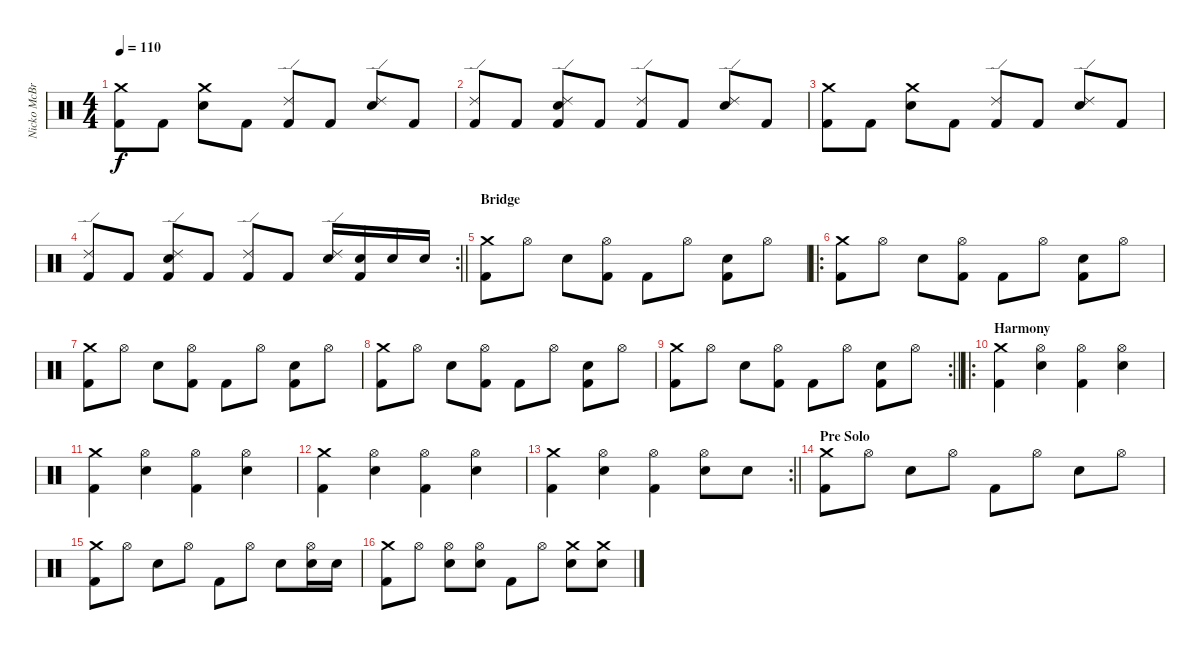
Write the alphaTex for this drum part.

\track ("Nicko McBrain" "Nicko McBr") {instrument percussion}
\staff {score}
\articulation defaults
\ts (4 4)
\tempo 110
\clef neutral
\ks c
("Crash medium (hit)" "Kick (hit) 2").8{dy f} "Kick (hit) 2".8 ("Snare (hit) 2" "Crash medium (hit)").8 "Kick (hit) 2".8 ("Ride (edge) 2" "Kick (hit) 2").8 "Kick (hit) 2".8 ("Snare (hit) 2" "Ride (edge) 2").8 "Kick (hit) 2".8 |
("Ride (edge) 2" "Kick (hit) 2").8 "Kick (hit) 2".8 ("Snare (hit) 2" "Ride (edge) 2" "Kick (hit) 2").8 "Kick (hit) 2".8 ("Ride (edge) 2" "Kick (hit) 2").8 "Kick (hit) 2".8 ("Snare (hit) 2" "Ride (edge) 2").8 "Kick (hit) 2".8 |
("Crash medium (hit)" "Kick (hit) 2").8 "Kick (hit) 2".8 ("Snare (hit) 2" "Crash medium (hit)").8 "Kick (hit) 2".8 ("Ride (edge) 2" "Kick (hit) 2").8 "Kick (hit) 2".8 ("Snare (hit) 2" "Ride (edge) 2").8 "Kick (hit) 2".8 |
\rc 2
\barLineRight lightlight
("Ride (edge) 2" "Kick (hit) 2").8 "Kick (hit) 2".8 ("Snare (hit) 2" "Ride (edge) 2" "Kick (hit) 2").8 "Kick (hit) 2".8 ("Ride (edge) 2" "Kick (hit) 2").8 "Kick (hit) 2".8 ("Snare (hit) 2" "Ride (edge) 2").16 ("Snare (hit) 2" "Kick (hit) 2").16 "Snare (hit) 2".16 "Snare (hit) 2".16 |
\section ("" "Bridge")
("Crash medium (hit)" "Kick (hit) 2").8 "Hi-Hat (open)".8 "Snare (hit) 2".8 ("Hi-Hat (open)" "Kick (hit) 2").8 "Kick (hit) 2".8 "Hi-Hat (open)".8 ("Snare (hit) 2" "Kick (hit) 2").8 "Hi-Hat (open)".8 |
\ro
("Crash medium (hit)" "Kick (hit) 2").8 "Hi-Hat (open)".8 "Snare (hit) 2".8 ("Hi-Hat (open)" "Kick (hit) 2").8 "Kick (hit) 2".8 "Hi-Hat (open)".8 ("Snare (hit) 2" "Kick (hit) 2").8 "Hi-Hat (open)".8 |
("Crash medium (hit)" "Kick (hit) 2").8 "Hi-Hat (open)".8 "Snare (hit) 2".8 ("Hi-Hat (open)" "Kick (hit) 2").8 "Kick (hit) 2".8 "Hi-Hat (open)".8 ("Snare (hit) 2" "Kick (hit) 2").8 "Hi-Hat (open)".8 |
("Crash medium (hit)" "Kick (hit) 2").8 "Hi-Hat (open)".8 "Snare (hit) 2".8 ("Hi-Hat (open)" "Kick (hit) 2").8 "Kick (hit) 2".8 "Hi-Hat (open)".8 ("Snare (hit) 2" "Kick (hit) 2").8 "Hi-Hat (open)".8 |
\rc 2
\barLineRight lightlight
("Crash medium (hit)" "Kick (hit) 2").8 "Hi-Hat (open)".8 "Snare (hit) 2".8 ("Hi-Hat (open)" "Kick (hit) 2").8 "Kick (hit) 2".8 "Hi-Hat (open)".8 ("Snare (hit) 2" "Kick (hit) 2").8 "Hi-Hat (open)".8 |
\ro
\section ("" "Harmony")
("Crash medium (hit)" "Kick (hit) 2").4 ("Snare (hit) 2" "Hi-Hat (open)").4 ("Hi-Hat (open)" "Kick (hit) 2").4 ("Snare (hit) 2" "Hi-Hat (open)").4 |
("Crash medium (hit)" "Kick (hit) 2").4 ("Snare (hit) 2" "Hi-Hat (open)").4 ("Hi-Hat (open)" "Kick (hit) 2").4 ("Snare (hit) 2" "Hi-Hat (open)").4 |
("Crash medium (hit)" "Kick (hit) 2").4 ("Snare (hit) 2" "Hi-Hat (open)").4 ("Hi-Hat (open)" "Kick (hit) 2").4 ("Snare (hit) 2" "Hi-Hat (open)").4 |
\rc 2
\barLineRight lightlight
("Crash medium (hit)" "Kick (hit) 2").4 ("Snare (hit) 2" "Hi-Hat (open)").4 ("Hi-Hat (open)" "Kick (hit) 2").4 ("Snare (hit) 2" "Hi-Hat (open)").8 "Snare (hit) 2".8 |
\section ("" "Pre Solo")
("Crash medium (hit)" "Kick (hit) 2").8 "Hi-Hat (open)".8 "Snare (hit) 2".8 "Hi-Hat (open)".8 "Kick (hit) 2".8 "Hi-Hat (open)".8 "Snare (hit) 2".8 "Hi-Hat (open)".8 |
("Crash medium (hit)" "Kick (hit) 2").8 "Hi-Hat (open)".8 "Snare (hit) 2".8 "Hi-Hat (open)".8 "Kick (hit) 2".8 "Hi-Hat (open)".8 "Snare (hit) 2".8 ("Snare (hit) 2" "Hi-Hat (open)").16 "Snare (hit) 2".16 |
("Crash medium (hit)" "Kick (hit) 2").8 "Hi-Hat (open)".8 ("Snare (hit) 2" "Hi-Hat (open)").8 ("Snare (hit) 2" "Hi-Hat (open)").8 "Kick (hit) 2".8 "Hi-Hat (open)".8 ("Snare (hit) 2" "Crash medium (hit)").8 ("Snare (hit) 2" "Crash medium (hit)").8
